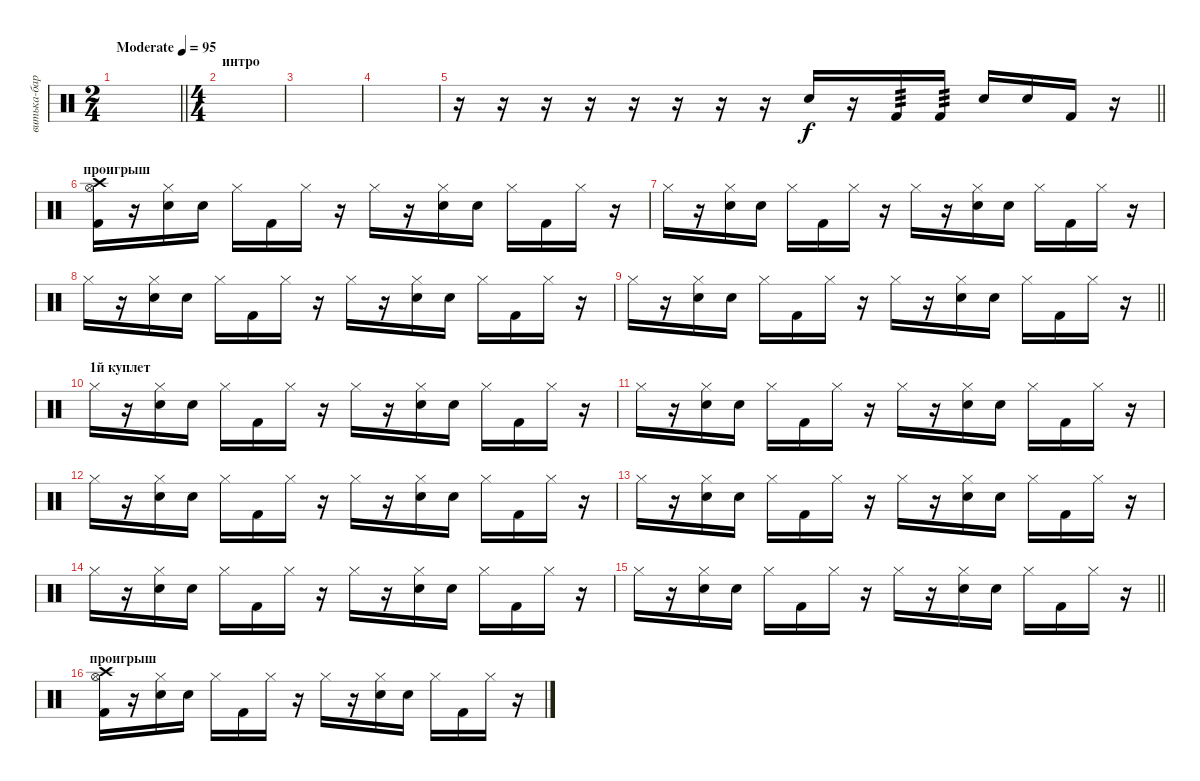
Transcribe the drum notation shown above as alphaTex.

\track ("витька-барабанит" "витька-бар") {instrument percussion}
\staff {score}
\articulation defaults
\ts (2 4)
\tempo (95 "Moderate")
\clef neutral
\barLineRight lightlight
\ks c
|
\ts (4 4)
\section ("" "интро")
|
|
|
\barLineRight lightlight
r.16 r.16 r.16 r.16 r.16 r.16 r.16 r.16 "Snare (hit) 2".16 r.16 "Kick (hit) 2".16{tp 3} "Kick (hit) 2".16{tp 3} "Snare (hit) 2".16 "Snare (hit) 2".16 "Kick (hit) 2".16 r.16 |
\section ("" "проигрыш")
("Kick (hit) 2" "Crash high (hit)" "Hi-Hat (open)").16 r.16 ("Snare (hit) 2" "Hi-Hat (closed)").16 "Snare (hit) 2".16 "Hi-Hat (closed)".16 "Kick (hit) 2".16 "Hi-Hat (closed)".16 r.16 "Hi-Hat (closed)".16 r.16 ("Snare (hit) 2" "Hi-Hat (closed)").16 "Snare (hit) 2".16 "Hi-Hat (closed)".16 "Kick (hit) 2".16 "Hi-Hat (closed)".16 r.16 |
"Hi-Hat (closed)".16 r.16 ("Snare (hit) 2" "Hi-Hat (closed)").16 "Snare (hit) 2".16 "Hi-Hat (closed)".16 "Kick (hit) 2".16 "Hi-Hat (closed)".16 r.16 "Hi-Hat (closed)".16 r.16 ("Snare (hit) 2" "Hi-Hat (closed)").16 "Snare (hit) 2".16 "Hi-Hat (closed)".16 "Kick (hit) 2".16 "Hi-Hat (closed)".16 r.16 |
"Hi-Hat (closed)".16 r.16 ("Snare (hit) 2" "Hi-Hat (closed)").16 "Snare (hit) 2".16 "Hi-Hat (closed)".16 "Kick (hit) 2".16 "Hi-Hat (closed)".16 r.16 "Hi-Hat (closed)".16 r.16 ("Snare (hit) 2" "Hi-Hat (closed)").16 "Snare (hit) 2".16 "Hi-Hat (closed)".16 "Kick (hit) 2".16 "Hi-Hat (closed)".16 r.16 |
\barLineRight lightlight "Hi-Hat (closed)".16
r.16 ("Snare (hit) 2" "Hi-Hat (closed)").16 "Snare (hit) 2".16 "Hi-Hat (closed)".16 "Kick (hit) 2".16 "Hi-Hat (closed)".16 r.16 "Hi-Hat (closed)".16 r.16 ("Snare (hit) 2" "Hi-Hat (closed)").16 "Snare (hit) 2".16 "Hi-Hat (closed)".16 "Kick (hit) 2".16 "Hi-Hat (closed)".16 r.16 |
\section ("" "1й куплет")
"Hi-Hat (closed)".16 r.16 ("Snare (hit) 2" "Hi-Hat (closed)").16 "Snare (hit) 2".16 "Hi-Hat (closed)".16 "Kick (hit) 2".16 "Hi-Hat (closed)".16 r.16 "Hi-Hat (closed)".16 r.16 ("Snare (hit) 2" "Hi-Hat (closed)").16 "Snare (hit) 2".16 "Hi-Hat (closed)".16 "Kick (hit) 2".16 "Hi-Hat (closed)".16 r.16 |
"Hi-Hat (closed)".16 r.16 ("Snare (hit) 2" "Hi-Hat (closed)").16 "Snare (hit) 2".16 "Hi-Hat (closed)".16 "Kick (hit) 2".16 "Hi-Hat (closed)".16 r.16 "Hi-Hat (closed)".16 r.16 ("Snare (hit) 2" "Hi-Hat (closed)").16 "Snare (hit) 2".16 "Hi-Hat (closed)".16 "Kick (hit) 2".16 "Hi-Hat (closed)".16 r.16 |
"Hi-Hat (closed)".16 r.16 ("Snare (hit) 2" "Hi-Hat (closed)").16 "Snare (hit) 2".16 "Hi-Hat (closed)".16 "Kick (hit) 2".16 "Hi-Hat (closed)".16 r.16 "Hi-Hat (closed)".16 r.16 ("Snare (hit) 2" "Hi-Hat (closed)").16 "Snare (hit) 2".16 "Hi-Hat (closed)".16 "Kick (hit) 2".16 "Hi-Hat (closed)".16 r.16 |
"Hi-Hat (closed)".16 r.16 ("Snare (hit) 2" "Hi-Hat (closed)").16 "Snare (hit) 2".16 "Hi-Hat (closed)".16 "Kick (hit) 2".16 "Hi-Hat (closed)".16 r.16 "Hi-Hat (closed)".16 r.16 ("Snare (hit) 2" "Hi-Hat (closed)").16 "Snare (hit) 2".16 "Hi-Hat (closed)".16 "Kick (hit) 2".16 "Hi-Hat (closed)".16 r.16 |
"Hi-Hat (closed)".16 r.16 ("Snare (hit) 2" "Hi-Hat (closed)").16 "Snare (hit) 2".16 "Hi-Hat (closed)".16 "Kick (hit) 2".16 "Hi-Hat (closed)".16 r.16 "Hi-Hat (closed)".16 r.16 ("Snare (hit) 2" "Hi-Hat (closed)").16 "Snare (hit) 2".16 "Hi-Hat (closed)".16 "Kick (hit) 2".16 "Hi-Hat (closed)".16 r.16 |
\barLineRight lightlight "Hi-Hat (closed)".16
r.16 ("Snare (hit) 2" "Hi-Hat (closed)").16 "Snare (hit) 2".16 "Hi-Hat (closed)".16 "Kick (hit) 2".16 "Hi-Hat (closed)".16 r.16 "Hi-Hat (closed)".16 r.16 ("Snare (hit) 2" "Hi-Hat (closed)").16 "Snare (hit) 2".16 "Hi-Hat (closed)".16 "Kick (hit) 2".16 "Hi-Hat (closed)".16 r.16 |
\section ("" "проигрыш")
("Kick (hit) 2" "Crash high (hit)" "Hi-Hat (open)").16 r.16 ("Snare (hit) 2" "Hi-Hat (closed)").16 "Snare (hit) 2".16 "Hi-Hat (closed)".16 "Kick (hit) 2".16 "Hi-Hat (closed)".16 r.16 "Hi-Hat (closed)".16 r.16 ("Snare (hit) 2" "Hi-Hat (closed)").16 "Snare (hit) 2".16 "Hi-Hat (closed)".16 "Kick (hit) 2".16 "Hi-Hat (closed)".16 r.16
